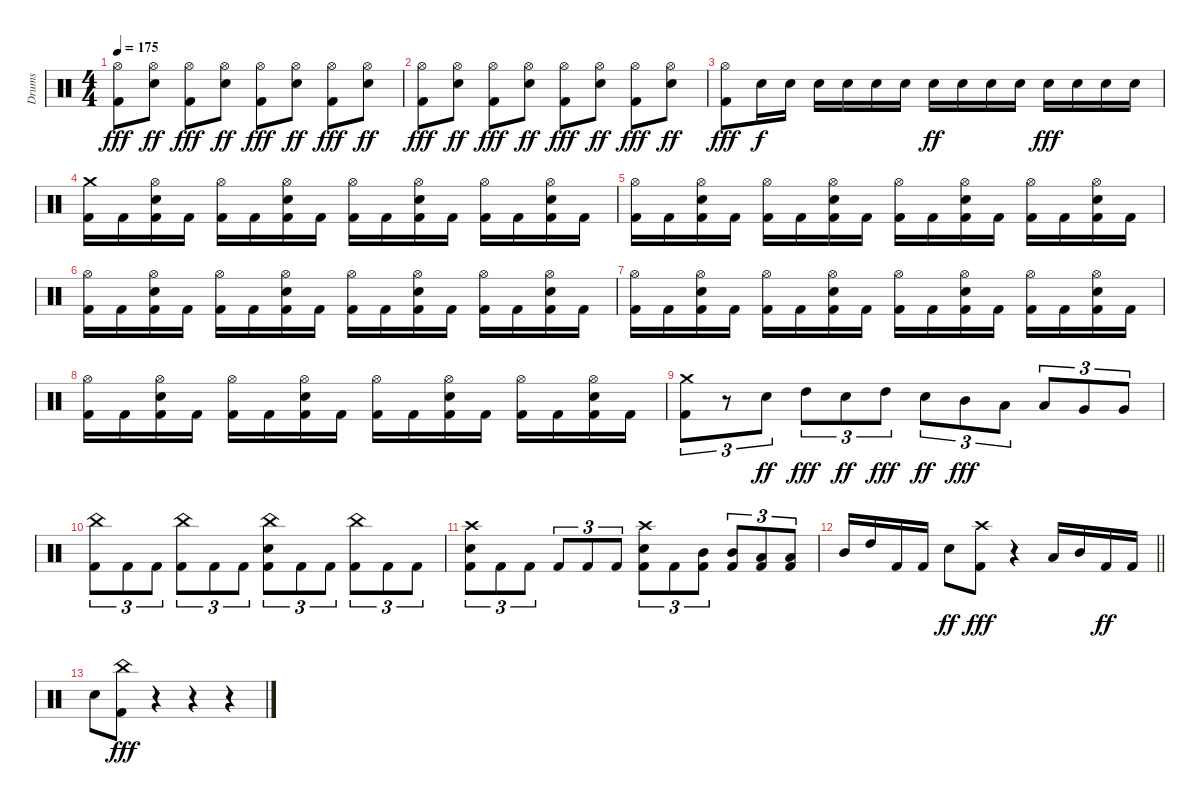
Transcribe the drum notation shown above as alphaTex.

\track ("Drums" "Drums") {instrument percussion}
\staff {score}
\articulation defaults
\ts (4 4)
\tempo 175
\clef neutral
\ks c
("Hi-Hat (open)" "Kick (hit) 2").8{dy fff} ("Hi-Hat (open)" "Snare (hit) 2").8{dy ff} ("Hi-Hat (open)" "Kick (hit) 2").8{dy fff} ("Hi-Hat (open)" "Snare (hit) 2").8{dy ff} ("Hi-Hat (open)" "Kick (hit) 2").8{dy fff} ("Hi-Hat (open)" "Snare (hit) 2").8{dy ff} ("Hi-Hat (open)" "Kick (hit) 2").8{dy fff} ("Hi-Hat (open)" "Snare (hit) 2").8{dy ff} |
("Hi-Hat (open)" "Kick (hit) 2").8{dy fff} ("Hi-Hat (open)" "Snare (hit) 2").8{dy ff} ("Hi-Hat (open)" "Kick (hit) 2").8{dy fff} ("Hi-Hat (open)" "Snare (hit) 2").8{dy ff} ("Hi-Hat (open)" "Kick (hit) 2").8{dy fff} ("Hi-Hat (open)" "Snare (hit) 2").8{dy ff} ("Hi-Hat (open)" "Kick (hit) 2").8{dy fff} ("Hi-Hat (open)" "Snare (hit) 2").8{dy ff} |
("Hi-Hat (open)" "Kick (hit) 2").8{dy fff} "Snare (hit) 2".16{dy f} "Snare (hit) 2".16 "Snare (hit) 2".16 "Snare (hit) 2".16 "Snare (hit) 2".16 "Snare (hit) 2".16 "Snare (hit) 2".16{dy ff} "Snare (hit) 2".16 "Snare (hit) 2".16 "Snare (hit) 2".16 "Snare (hit) 2".16{dy fff} "Snare (hit) 2".16 "Snare (hit) 2".16 "Snare (hit) 2".16 |
("Crash medium (hit)" "Kick (hit) 2").16 "Kick (hit) 2".16 ("Hi-Hat (open)" "Snare (hit) 2" "Kick (hit) 2").16 "Kick (hit) 2".16 ("Hi-Hat (open)" "Kick (hit) 2").16 "Kick (hit) 2".16 ("Hi-Hat (open)" "Snare (hit) 2" "Kick (hit) 2").16 "Kick (hit) 2".16 ("Hi-Hat (open)" "Kick (hit) 2").16 "Kick (hit) 2".16 ("Hi-Hat (open)" "Snare (hit) 2" "Kick (hit) 2").16 "Kick (hit) 2".16 ("Hi-Hat (open)" "Kick (hit) 2").16 "Kick (hit) 2".16 ("Hi-Hat (open)" "Snare (hit) 2" "Kick (hit) 2").16 "Kick (hit) 2".16 |
("Hi-Hat (open)" "Kick (hit) 2").16 "Kick (hit) 2".16 ("Hi-Hat (open)" "Snare (hit) 2" "Kick (hit) 2").16 "Kick (hit) 2".16 ("Hi-Hat (open)" "Kick (hit) 2").16 "Kick (hit) 2".16 ("Hi-Hat (open)" "Snare (hit) 2" "Kick (hit) 2").16 "Kick (hit) 2".16 ("Hi-Hat (open)" "Kick (hit) 2").16 "Kick (hit) 2".16 ("Hi-Hat (open)" "Snare (hit) 2" "Kick (hit) 2").16 "Kick (hit) 2".16 ("Hi-Hat (open)" "Kick (hit) 2").16 "Kick (hit) 2".16 ("Hi-Hat (open)" "Snare (hit) 2" "Kick (hit) 2").16 "Kick (hit) 2".16 |
("Hi-Hat (open)" "Kick (hit) 2").16 "Kick (hit) 2".16 ("Hi-Hat (open)" "Snare (hit) 2" "Kick (hit) 2").16 "Kick (hit) 2".16 ("Hi-Hat (open)" "Kick (hit) 2").16 "Kick (hit) 2".16 ("Hi-Hat (open)" "Snare (hit) 2" "Kick (hit) 2").16 "Kick (hit) 2".16 ("Hi-Hat (open)" "Kick (hit) 2").16 "Kick (hit) 2".16 ("Hi-Hat (open)" "Snare (hit) 2" "Kick (hit) 2").16 "Kick (hit) 2".16 ("Hi-Hat (open)" "Kick (hit) 2").16 "Kick (hit) 2".16 ("Hi-Hat (open)" "Snare (hit) 2" "Kick (hit) 2").16 "Kick (hit) 2".16 |
("Hi-Hat (open)" "Kick (hit) 2").16 "Kick (hit) 2".16 ("Hi-Hat (open)" "Snare (hit) 2" "Kick (hit) 2").16 "Kick (hit) 2".16 ("Hi-Hat (open)" "Kick (hit) 2").16 "Kick (hit) 2".16 ("Hi-Hat (open)" "Snare (hit) 2" "Kick (hit) 2").16 "Kick (hit) 2".16 ("Hi-Hat (open)" "Kick (hit) 2").16 "Kick (hit) 2".16 ("Hi-Hat (open)" "Snare (hit) 2" "Kick (hit) 2").16 "Kick (hit) 2".16 ("Hi-Hat (open)" "Kick (hit) 2").16 "Kick (hit) 2".16 ("Hi-Hat (open)" "Snare (hit) 2" "Kick (hit) 2").16 "Kick (hit) 2".16 |
("Hi-Hat (open)" "Kick (hit) 2").16 "Kick (hit) 2".16 ("Hi-Hat (open)" "Snare (hit) 2" "Kick (hit) 2").16 "Kick (hit) 2".16 ("Hi-Hat (open)" "Kick (hit) 2").16 "Kick (hit) 2".16 ("Hi-Hat (open)" "Snare (hit) 2" "Kick (hit) 2").16 "Kick (hit) 2".16 ("Hi-Hat (open)" "Kick (hit) 2").16 "Kick (hit) 2".16 ("Hi-Hat (open)" "Snare (hit) 2" "Kick (hit) 2").16 "Kick (hit) 2".16 ("Hi-Hat (open)" "Kick (hit) 2").16 "Kick (hit) 2".16 ("Hi-Hat (open)" "Snare (hit) 2" "Kick (hit) 2").16 "Kick (hit) 2".16 |
("Crash medium (hit)" "Kick (hit) 2").8{tu (3 2)} r.8{tu (3 2)} "Snare (hit) 2".8{tu (3 2) dy ff} "High Tom (hit)".8{tu (3 2) dy fff} "Snare (hit) 2".8{tu (3 2) dy ff} "High Tom (hit)".8{tu (3 2) dy fff} "Snare (hit) 2".8{tu (3 2) dy ff} "Mid Tom (hit)".8{tu (3 2) dy fff} "Low Tom (hit)".8{tu (3 2)} "Low Tom (hit)".8{tu (3 2)} "Very Low Tom (hit)".8{tu (3 2)} "Very Low Tom (hit)".8{tu (3 2)} |
("China (hit)" "Kick (hit) 2").8{tu (3 2)} "Kick (hit) 2".8{tu (3 2)} "Kick (hit) 2".8{tu (3 2)} ("China (hit)" "Kick (hit) 2").8{tu (3 2)} "Kick (hit) 2".8{tu (3 2)} "Kick (hit) 2".8{tu (3 2)} ("China (hit)" "Snare (hit) 2" "Kick (hit) 2").8{tu (3 2)} "Kick (hit) 2".8{tu (3 2)} "Kick (hit) 2".8{tu (3 2)} ("China (hit)" "Kick (hit) 2").8{tu (3 2)} "Kick (hit) 2".8{tu (3 2)} "Kick (hit) 2".8{tu (3 2)} |
("Crash high (hit)" "Snare (hit) 2" "Kick (hit) 2").8{tu (3 2)} "Kick (hit) 2".8{tu (3 2)} "Kick (hit) 2".8{tu (3 2)} "Kick (hit) 2".8{tu (3 2)} "Kick (hit) 2".8{tu (3 2)} "Kick (hit) 2".8{tu (3 2)} ("Crash high (hit)" "Snare (hit) 2" "Kick (hit) 2").8{tu (3 2)} "Kick (hit) 2".8{tu (3 2)} ("Mid Tom (hit)" "Kick (hit) 2").8{tu (3 2)} ("Mid Tom (hit)" "Kick (hit) 2").8{tu (3 2)} ("Low Tom (hit)" "Kick (hit) 2").8{tu (3 2)} ("Low Tom (hit)" "Kick (hit) 2").8{tu (3 2)} |
\barLineRight lightlight "Mid Tom (hit)".16 "High Tom (hit)".16 "Kick (hit) 2".16 "Kick (hit) 2".16 "Snare (hit) 2".8{dy ff}
("Crash high (hit)" "Kick (hit) 2").8{dy fff} r.4 "Low Tom (hit)".16 "Mid Tom (hit)".16 "Kick (hit) 2".16{dy ff} "Kick (hit) 2".16 |
"Snare (hit) 2".8 ("China (hit)" "Kick (hit) 2").8{dy fff} r.4 r.4 r.4
